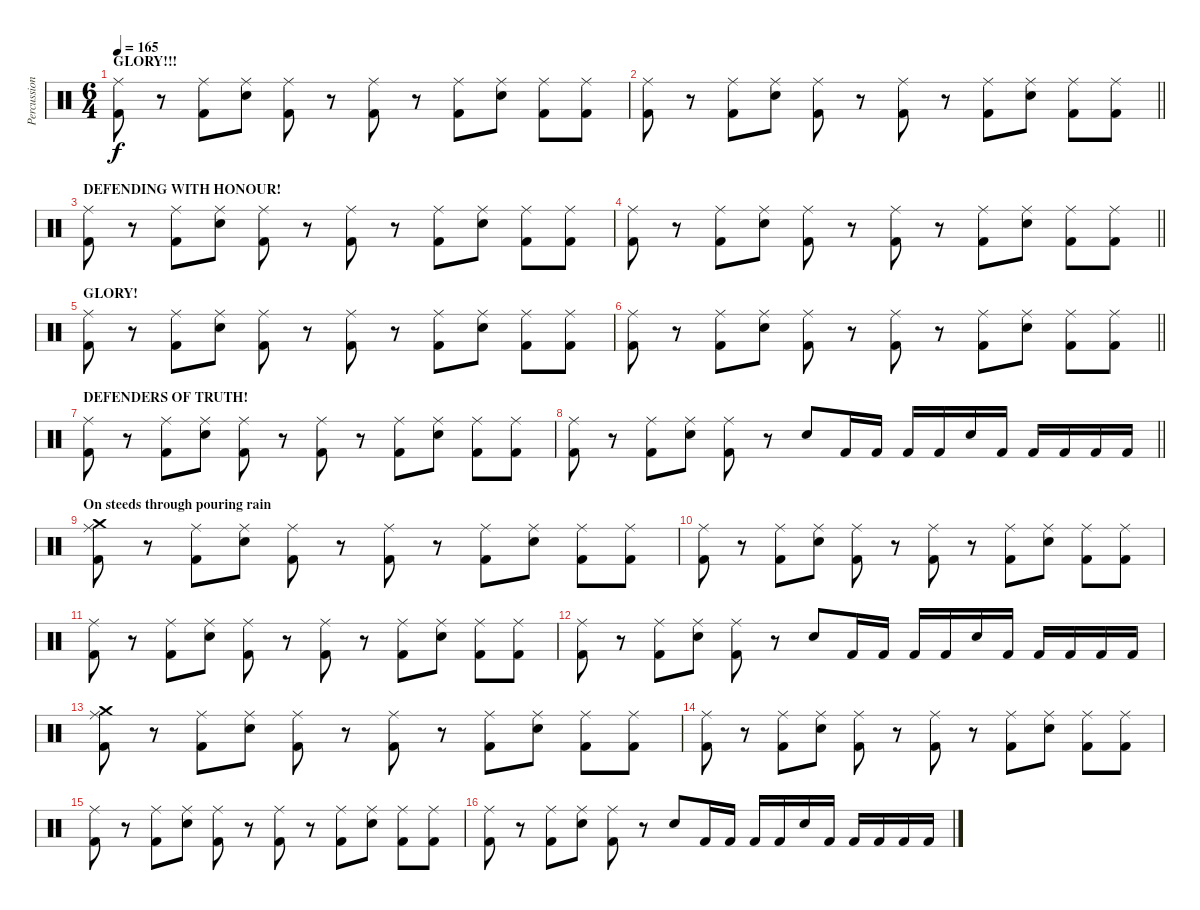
\track ("Percussion" "Percussion") {instrument percussion}
\staff {score}
\articulation defaults
\ts (6 4)
\section ("" "GLORY!!!")
\tempo 165
\clef neutral
\ks c
("Ride (middle)" "Kick (hit) 2").8{dy f} r.8 ("Ride (middle)" "Kick (hit) 2").8 ("Ride (middle)" "Electric Snare (hit)").8 ("Ride (middle)" "Kick (hit) 2").8 r.8 ("Ride (middle)" "Kick (hit) 2").8 r.8 ("Ride (middle)" "Kick (hit) 2").8 ("Ride (middle)" "Electric Snare (hit)").8 ("Ride (middle)" "Kick (hit) 2").8 ("Ride (middle)" "Kick (hit) 2").8 |
\barLineRight lightlight
("Ride (middle)" "Kick (hit) 2").8 r.8 ("Ride (middle)" "Kick (hit) 2").8 ("Ride (middle)" "Electric Snare (hit)").8 ("Ride (middle)" "Kick (hit) 2").8 r.8 ("Ride (middle)" "Kick (hit) 2").8 r.8 ("Ride (middle)" "Kick (hit) 2").8 ("Ride (middle)" "Electric Snare (hit)").8 ("Ride (middle)" "Kick (hit) 2").8 ("Ride (middle)" "Kick (hit) 2").8 |
\section ("" "DEFENDING WITH HONOUR!")
("Ride (middle)" "Kick (hit) 2").8 r.8 ("Ride (middle)" "Kick (hit) 2").8 ("Ride (middle)" "Electric Snare (hit)").8 ("Ride (middle)" "Kick (hit) 2").8 r.8 ("Ride (middle)" "Kick (hit) 2").8 r.8 ("Ride (middle)" "Kick (hit) 2").8 ("Ride (middle)" "Electric Snare (hit)").8 ("Ride (middle)" "Kick (hit) 2").8 ("Ride (middle)" "Kick (hit) 2").8 |
\barLineRight lightlight
("Ride (middle)" "Kick (hit) 2").8 r.8 ("Ride (middle)" "Kick (hit) 2").8 ("Ride (middle)" "Electric Snare (hit)").8 ("Ride (middle)" "Kick (hit) 2").8 r.8 ("Ride (middle)" "Kick (hit) 2").8 r.8 ("Ride (middle)" "Kick (hit) 2").8 ("Ride (middle)" "Electric Snare (hit)").8 ("Ride (middle)" "Kick (hit) 2").8 ("Ride (middle)" "Kick (hit) 2").8 |
\section ("" "GLORY!")
("Ride (middle)" "Kick (hit) 2").8 r.8 ("Ride (middle)" "Kick (hit) 2").8 ("Ride (middle)" "Electric Snare (hit)").8 ("Ride (middle)" "Kick (hit) 2").8 r.8 ("Ride (middle)" "Kick (hit) 2").8 r.8 ("Ride (middle)" "Kick (hit) 2").8 ("Ride (middle)" "Electric Snare (hit)").8 ("Ride (middle)" "Kick (hit) 2").8 ("Ride (middle)" "Kick (hit) 2").8 |
\barLineRight lightlight
("Ride (middle)" "Kick (hit) 2").8 r.8 ("Ride (middle)" "Kick (hit) 2").8 ("Ride (middle)" "Electric Snare (hit)").8 ("Ride (middle)" "Kick (hit) 2").8 r.8 ("Ride (middle)" "Kick (hit) 2").8 r.8 ("Ride (middle)" "Kick (hit) 2").8 ("Ride (middle)" "Electric Snare (hit)").8 ("Ride (middle)" "Kick (hit) 2").8 ("Ride (middle)" "Kick (hit) 2").8 |
\section ("" "DEFENDERS OF TRUTH!")
("Ride (middle)" "Kick (hit) 2").8 r.8 ("Ride (middle)" "Kick (hit) 2").8 ("Ride (middle)" "Electric Snare (hit)").8 ("Ride (middle)" "Kick (hit) 2").8 r.8 ("Ride (middle)" "Kick (hit) 2").8 r.8 ("Ride (middle)" "Kick (hit) 2").8 ("Ride (middle)" "Electric Snare (hit)").8 ("Ride (middle)" "Kick (hit) 2").8 ("Ride (middle)" "Kick (hit) 2").8 |
\barLineRight lightlight
("Ride (middle)" "Kick (hit) 2").8 r.8 ("Ride (middle)" "Kick (hit) 2").8 ("Ride (middle)" "Electric Snare (hit)").8 ("Ride (middle)" "Kick (hit) 2").8 r.8 "Electric Snare (hit)".8 "Kick (hit) 2".16 "Kick (hit) 2".16 "Kick (hit) 2".16 "Kick (hit) 2".16 "Electric Snare (hit)".16 "Kick (hit) 2".16 "Kick (hit) 2".16 "Kick (hit) 2".16 "Kick (hit) 2".16 "Kick (hit) 2".16 |
\section ("" "On steeds through pouring rain")
("Crash medium (hit)" "Ride (middle)" "Kick (hit) 2").8 r.8 ("Ride (middle)" "Kick (hit) 2").8 ("Ride (middle)" "Electric Snare (hit)").8 ("Ride (middle)" "Kick (hit) 2").8 r.8 ("Ride (middle)" "Kick (hit) 2").8 r.8 ("Ride (middle)" "Kick (hit) 2").8 ("Ride (middle)" "Electric Snare (hit)").8 ("Ride (middle)" "Kick (hit) 2").8 ("Ride (middle)" "Kick (hit) 2").8 |
("Ride (middle)" "Kick (hit) 2").8 r.8 ("Ride (middle)" "Kick (hit) 2").8 ("Ride (middle)" "Electric Snare (hit)").8 ("Ride (middle)" "Kick (hit) 2").8 r.8 ("Ride (middle)" "Kick (hit) 2").8 r.8 ("Ride (middle)" "Kick (hit) 2").8 ("Ride (middle)" "Electric Snare (hit)").8 ("Ride (middle)" "Kick (hit) 2").8 ("Ride (middle)" "Kick (hit) 2").8 |
("Ride (middle)" "Kick (hit) 2").8 r.8 ("Ride (middle)" "Kick (hit) 2").8 ("Ride (middle)" "Electric Snare (hit)").8 ("Ride (middle)" "Kick (hit) 2").8 r.8 ("Ride (middle)" "Kick (hit) 2").8 r.8 ("Ride (middle)" "Kick (hit) 2").8 ("Ride (middle)" "Electric Snare (hit)").8 ("Ride (middle)" "Kick (hit) 2").8 ("Ride (middle)" "Kick (hit) 2").8 |
("Ride (middle)" "Kick (hit) 2").8 r.8 ("Ride (middle)" "Kick (hit) 2").8 ("Ride (middle)" "Electric Snare (hit)").8 ("Ride (middle)" "Kick (hit) 2").8 r.8 "Electric Snare (hit)".8 "Kick (hit) 2".16 "Kick (hit) 2".16 "Kick (hit) 2".16 "Kick (hit) 2".16 "Electric Snare (hit)".16 "Kick (hit) 2".16 "Kick (hit) 2".16 "Kick (hit) 2".16 "Kick (hit) 2".16 "Kick (hit) 2".16 |
("Crash medium (hit)" "Ride (middle)" "Kick (hit) 2").8 r.8 ("Ride (middle)" "Kick (hit) 2").8 ("Ride (middle)" "Electric Snare (hit)").8 ("Ride (middle)" "Kick (hit) 2").8 r.8 ("Ride (middle)" "Kick (hit) 2").8 r.8 ("Ride (middle)" "Kick (hit) 2").8 ("Ride (middle)" "Electric Snare (hit)").8 ("Ride (middle)" "Kick (hit) 2").8 ("Ride (middle)" "Kick (hit) 2").8 |
("Ride (middle)" "Kick (hit) 2").8 r.8 ("Ride (middle)" "Kick (hit) 2").8 ("Ride (middle)" "Electric Snare (hit)").8 ("Ride (middle)" "Kick (hit) 2").8 r.8 ("Ride (middle)" "Kick (hit) 2").8 r.8 ("Ride (middle)" "Kick (hit) 2").8 ("Ride (middle)" "Electric Snare (hit)").8 ("Ride (middle)" "Kick (hit) 2").8 ("Ride (middle)" "Kick (hit) 2").8 |
("Ride (middle)" "Kick (hit) 2").8 r.8 ("Ride (middle)" "Kick (hit) 2").8 ("Ride (middle)" "Electric Snare (hit)").8 ("Ride (middle)" "Kick (hit) 2").8 r.8 ("Ride (middle)" "Kick (hit) 2").8 r.8 ("Ride (middle)" "Kick (hit) 2").8 ("Ride (middle)" "Electric Snare (hit)").8 ("Ride (middle)" "Kick (hit) 2").8 ("Ride (middle)" "Kick (hit) 2").8 |
("Ride (middle)" "Kick (hit) 2").8 r.8 ("Ride (middle)" "Kick (hit) 2").8 ("Ride (middle)" "Electric Snare (hit)").8 ("Ride (middle)" "Kick (hit) 2").8 r.8 "Electric Snare (hit)".8 "Kick (hit) 2".16 "Kick (hit) 2".16 "Kick (hit) 2".16 "Kick (hit) 2".16 "Electric Snare (hit)".16 "Kick (hit) 2".16 "Kick (hit) 2".16 "Kick (hit) 2".16 "Kick (hit) 2".16 "Kick (hit) 2".16
